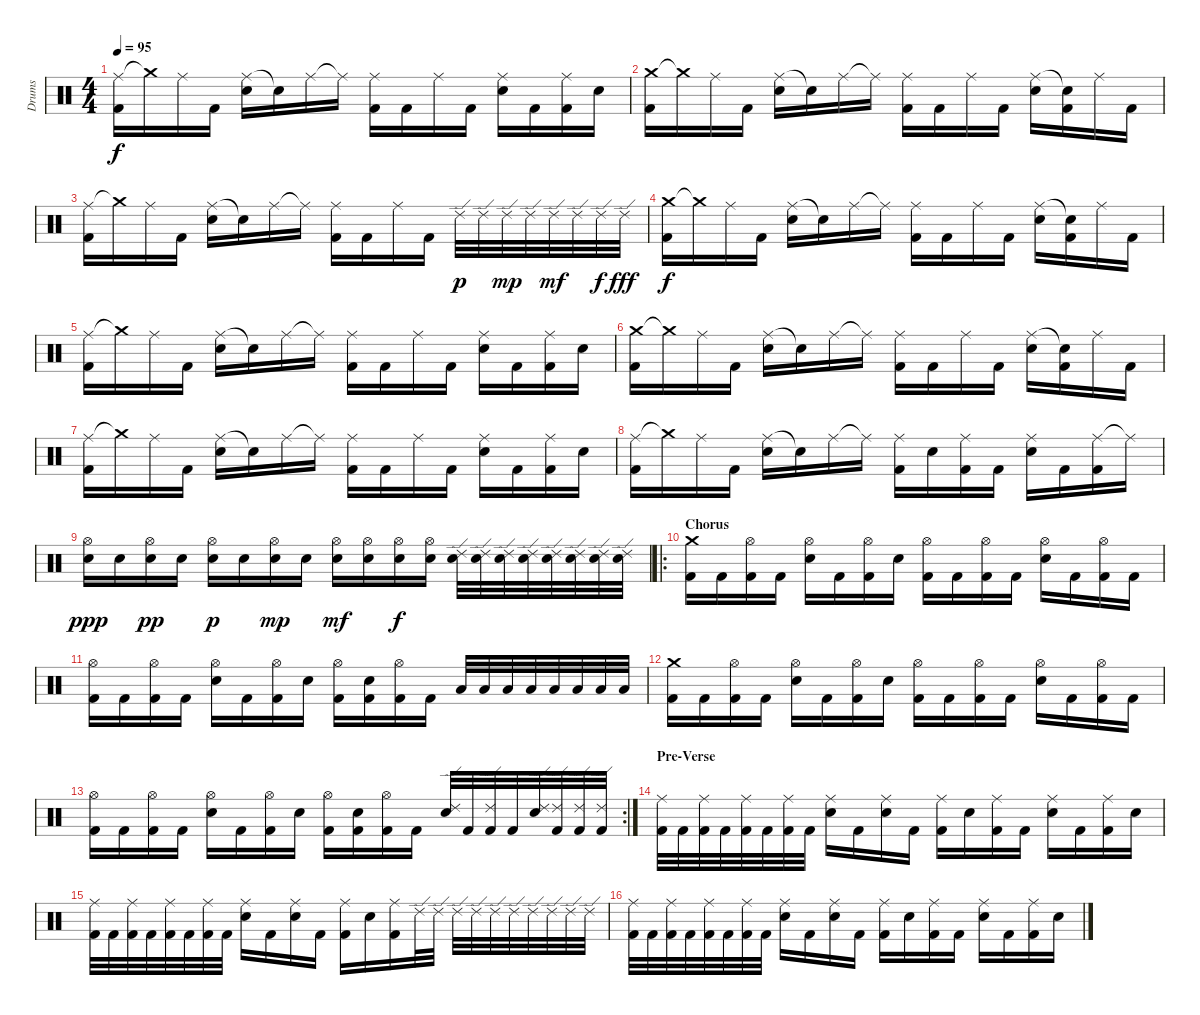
\track ("Drums" "Drums") {instrument percussion}
\staff {score}
\articulation defaults
\ts (4 4)
\tempo 95
\clef neutral
\ks c
("Ride (middle)" "Kick (hit) 2").16{dy f} "Crash medium (hit)"{t}.16 "Ride (middle)".16 "Kick (hit) 2".16 ("Ride (middle)" "Electric Snare (hit)").16 "Electric Snare (hit)"{t}.16 "Ride (middle)".16 "Ride (middle)"{t}.16 ("Ride (middle)" "Kick (hit) 2").16 "Kick (hit) 2".16 "Ride (middle)".16 "Kick (hit) 2".16 ("Ride (middle)" "Electric Snare (hit)").16 "Kick (hit) 2".16 ("Ride (middle)" "Kick (hit) 2").16 "Electric Snare (hit)".16 |
("Crash medium (hit)" "Kick (hit) 2").16 "Crash medium (hit)"{t}.16 "Ride (middle)".16 "Kick (hit) 2".16 ("Ride (middle)" "Electric Snare (hit)").16 "Electric Snare (hit)"{t}.16 "Ride (middle)".16 "Ride (middle)"{t}.16 ("Ride (middle)" "Kick (hit) 2").16 "Kick (hit) 2".16 "Ride (middle)".16 "Kick (hit) 2".16 ("Ride (middle)" "Electric Snare (hit)").16 ("Electric Snare (hit)"{t} "Kick (hit) 2").16 "Ride (middle)".16 "Kick (hit) 2".16 |
("Ride (middle)" "Kick (hit) 2").16 "Crash medium (hit)"{t}.16 "Ride (middle)".16 "Kick (hit) 2".16 ("Ride (middle)" "Electric Snare (hit)").16 "Electric Snare (hit)"{t}.16 "Ride (middle)".16 "Ride (middle)"{t}.16 ("Ride (middle)" "Kick (hit) 2").16 "Kick (hit) 2".16 "Ride (middle)".16 "Kick (hit) 2".16 "Ride (edge) 2".32{dy p} "Ride (edge) 2".32 "Ride (edge) 2".32{dy mp} "Ride (edge) 2".32 "Ride (edge) 2".32{dy mf} "Ride (edge) 2".32 "Ride (edge) 2".32{dy f} "Ride (edge) 2".32{dy fff} |
("Crash medium (hit)" "Kick (hit) 2").16{dy f} "Crash medium (hit)"{t}.16 "Ride (middle)".16 "Kick (hit) 2".16 ("Ride (middle)" "Electric Snare (hit)").16 "Electric Snare (hit)"{t}.16 "Ride (middle)".16 "Ride (middle)"{t}.16 ("Ride (middle)" "Kick (hit) 2").16 "Kick (hit) 2".16 "Ride (middle)".16 "Kick (hit) 2".16 ("Ride (middle)" "Electric Snare (hit)").16 ("Electric Snare (hit)"{t} "Kick (hit) 2").16 "Ride (middle)".16 "Kick (hit) 2".16 |
("Ride (middle)" "Kick (hit) 2").16 "Crash medium (hit)"{t}.16 "Ride (middle)".16 "Kick (hit) 2".16 ("Ride (middle)" "Electric Snare (hit)").16 "Electric Snare (hit)"{t}.16 "Ride (middle)".16 "Ride (middle)"{t}.16 ("Ride (middle)" "Kick (hit) 2").16 "Kick (hit) 2".16 "Ride (middle)".16 "Kick (hit) 2".16 ("Ride (middle)" "Electric Snare (hit)").16 "Kick (hit) 2".16 ("Ride (middle)" "Kick (hit) 2").16 "Electric Snare (hit)".16 |
("Crash medium (hit)" "Kick (hit) 2").16 "Crash medium (hit)"{t}.16 "Ride (middle)".16 "Kick (hit) 2".16 ("Ride (middle)" "Electric Snare (hit)").16 "Electric Snare (hit)"{t}.16 "Ride (middle)".16 "Ride (middle)"{t}.16 ("Ride (middle)" "Kick (hit) 2").16 "Kick (hit) 2".16 "Ride (middle)".16 "Kick (hit) 2".16 ("Ride (middle)" "Electric Snare (hit)").16 ("Electric Snare (hit)"{t} "Kick (hit) 2").16 "Ride (middle)".16 "Kick (hit) 2".16 |
("Ride (middle)" "Kick (hit) 2").16 "Crash medium (hit)"{t}.16 "Ride (middle)".16 "Kick (hit) 2".16 ("Ride (middle)" "Electric Snare (hit)").16 "Electric Snare (hit)"{t}.16 "Ride (middle)".16 "Ride (middle)"{t}.16 ("Ride (middle)" "Kick (hit) 2").16 "Kick (hit) 2".16 "Ride (middle)".16 "Kick (hit) 2".16 ("Ride (middle)" "Electric Snare (hit)").16 "Kick (hit) 2".16 ("Ride (middle)" "Kick (hit) 2").16 "Electric Snare (hit)".16 |
("Ride (middle)" "Kick (hit) 2").16 "Crash medium (hit)"{t}.16 "Ride (middle)".16 "Kick (hit) 2".16 ("Ride (middle)" "Electric Snare (hit)").16 "Electric Snare (hit)"{t}.16 "Ride (middle)".16 "Ride (middle)"{t}.16 ("Ride (middle)" "Kick (hit) 2").16 "Electric Snare (hit)".16 ("Ride (middle)" "Kick (hit) 2").16 "Kick (hit) 2".16 ("Ride (middle)" "Electric Snare (hit)").16 "Kick (hit) 2".16 ("Ride (middle)" "Kick (hit) 2").16 "Ride (middle)"{t}.16 |
("Hi-Hat (open)" "Electric Snare (hit)").16{dy ppp} "Electric Snare (hit)".16 ("Hi-Hat (open)" "Electric Snare (hit)").16{dy pp} "Electric Snare (hit)".16 ("Hi-Hat (open)" "Electric Snare (hit)").16{dy p} "Electric Snare (hit)".16 ("Hi-Hat (open)" "Electric Snare (hit)").16{dy mp} "Electric Snare (hit)".16 ("Hi-Hat (open)" "Electric Snare (hit)").16{dy mf} ("Hi-Hat (open)" "Electric Snare (hit)").16 ("Hi-Hat (open)" "Electric Snare (hit)").16{dy f} ("Hi-Hat (open)" "Electric Snare (hit)").16 ("Ride (edge) 2" "Electric Snare (hit)").32{balance 16} ("Ride (edge) 2" "Electric Snare (hit)").32{balance 12} ("Ride (edge) 2" "Electric Snare (hit)").32{balance 10} ("Ride (edge) 2" "Electric Snare (hit)").32{balance 8} ("Ride (edge) 2" "Electric Snare (hit)").32{balance 6} ("Ride (edge) 2" "Electric Snare (hit)").32{balance 4} ("Ride (edge) 2" "Electric Snare (hit)").32{balance 2} ("Ride (edge) 2" "Electric Snare (hit)").32{balance 0} |
\ro
\section ("" "Chorus")
("Crash medium (hit)" "Kick (hit) 2").16{balance 8} "Kick (hit) 2".16 ("Hi-Hat (open)" "Kick (hit) 2").16 "Kick (hit) 2".16 ("Hi-Hat (open)" "Electric Snare (hit)").16 "Kick (hit) 2".16 ("Hi-Hat (open)" "Kick (hit) 2").16 "Electric Snare (hit)".16 ("Hi-Hat (open)" "Kick (hit) 2").16 "Kick (hit) 2".16 ("Hi-Hat (open)" "Kick (hit) 2").16 "Kick (hit) 2".16 ("Hi-Hat (open)" "Electric Snare (hit)").16 "Kick (hit) 2".16 ("Hi-Hat (open)" "Kick (hit) 2").16 "Kick (hit) 2".16 |
("Hi-Hat (open)" "Kick (hit) 2").16 "Kick (hit) 2".16 ("Hi-Hat (open)" "Kick (hit) 2").16 "Kick (hit) 2".16 ("Hi-Hat (open)" "Electric Snare (hit)").16 "Kick (hit) 2".16 ("Hi-Hat (open)" "Kick (hit) 2").16 "Electric Snare (hit)".16 ("Hi-Hat (open)" "Kick (hit) 2").16 ("Electric Snare (hit)" "Kick (hit) 2").16 ("Hi-Hat (open)" "Kick (hit) 2").16 "Kick (hit) 2".16 "Low Floor Tom (hit)".32{balance 16} "Low Floor Tom (hit)".32{balance 14} "Low Floor Tom (hit)".32{balance 12} "Low Floor Tom (hit)".32{balance 10} "Low Floor Tom (hit)".32{balance 6} "Low Floor Tom (hit)".32{balance 6} "Low Floor Tom (hit)".32{balance 2} "Low Floor Tom (hit)".32{balance 0} |
("Crash medium (hit)" "Kick (hit) 2").16{balance 8} "Kick (hit) 2".16 ("Hi-Hat (open)" "Kick (hit) 2").16 "Kick (hit) 2".16 ("Hi-Hat (open)" "Electric Snare (hit)").16 "Kick (hit) 2".16 ("Hi-Hat (open)" "Kick (hit) 2").16 "Electric Snare (hit)".16 ("Hi-Hat (open)" "Kick (hit) 2").16 "Kick (hit) 2".16 ("Hi-Hat (open)" "Kick (hit) 2").16 "Kick (hit) 2".16 ("Hi-Hat (open)" "Electric Snare (hit)").16 "Kick (hit) 2".16 ("Hi-Hat (open)" "Kick (hit) 2").16 "Kick (hit) 2".16 |
\rc 2
("Hi-Hat (open)" "Kick (hit) 2").16 "Kick (hit) 2".16 ("Hi-Hat (open)" "Kick (hit) 2").16 "Kick (hit) 2".16 ("Hi-Hat (open)" "Electric Snare (hit)").16 "Kick (hit) 2".16 ("Hi-Hat (open)" "Kick (hit) 2").16 "Electric Snare (hit)".16 ("Hi-Hat (open)" "Kick (hit) 2").16 ("Electric Snare (hit)" "Kick (hit) 2").16 ("Hi-Hat (open)" "Kick (hit) 2").16 "Kick (hit) 2".16 ("Ride (edge) 2" "Electric Snare (hit)").32{balance 16} "Kick (hit) 2".32 ("Ride (edge) 2" "Kick (hit) 2").32 "Kick (hit) 2".32 ("Ride (edge) 2" "Electric Snare (hit)").32{balance 0} ("Ride (edge) 2" "Kick (hit) 2").32 ("Ride (edge) 2" "Kick (hit) 2").32 ("Ride (edge) 2" "Kick (hit) 2").32 |
\section ("" "Pre-Verse")
("Ride (middle)" "Kick (hit) 2").32{balance 8} "Kick (hit) 2".32 ("Ride (middle)" "Kick (hit) 2").32 "Kick (hit) 2".32 ("Ride (middle)" "Kick (hit) 2").32 "Kick (hit) 2".32 ("Ride (middle)" "Kick (hit) 2").32 "Kick (hit) 2".32 ("Ride (middle)" "Electric Snare (hit)").16 "Kick (hit) 2".16 ("Ride (middle)" "Electric Snare (hit)").16 "Kick (hit) 2".16 ("Ride (middle)" "Kick (hit) 2").16 "Electric Snare (hit)".16 ("Ride (middle)" "Kick (hit) 2").16 "Kick (hit) 2".16 ("Ride (middle)" "Electric Snare (hit)").16 "Kick (hit) 2".16 ("Ride (middle)" "Kick (hit) 2").16 "Electric Snare (hit)".16 |
("Ride (middle)" "Kick (hit) 2").32{balance 8} "Kick (hit) 2".32 ("Ride (middle)" "Kick (hit) 2").32 "Kick (hit) 2".32 ("Ride (middle)" "Kick (hit) 2").32 "Kick (hit) 2".32 ("Ride (middle)" "Kick (hit) 2").32 "Kick (hit) 2".32 ("Ride (middle)" "Electric Snare (hit)").16 "Kick (hit) 2".16 ("Ride (middle)" "Electric Snare (hit)").16 "Kick (hit) 2".16 ("Ride (middle)" "Kick (hit) 2").16 "Electric Snare (hit)".16 ("Ride (middle)" "Kick (hit) 2").16 "Ride (edge) 2".32{volume 4 balance 0} "Ride (edge) 2".32{volume 4 balance 16} "Ride (edge) 2".32{volume 16 balance 0} "Ride (edge) 2".32{balance 16} "Ride (edge) 2".32{balance 0} "Ride (edge) 2".32{balance 16} "Ride (edge) 2".32{balance 0} "Ride (edge) 2".32{balance 16} "Ride (edge) 2".32{balance 0} "Ride (edge) 2".32{balance 16} |
("Ride (middle)" "Kick (hit) 2").32{balance 8} "Kick (hit) 2".32 ("Ride (middle)" "Kick (hit) 2").32 "Kick (hit) 2".32 ("Ride (middle)" "Kick (hit) 2").32 "Kick (hit) 2".32 ("Ride (middle)" "Kick (hit) 2").32 "Kick (hit) 2".32 ("Ride (middle)" "Electric Snare (hit)").16 "Kick (hit) 2".16 ("Ride (middle)" "Electric Snare (hit)").16 "Kick (hit) 2".16 ("Ride (middle)" "Kick (hit) 2").16 "Electric Snare (hit)".16 ("Ride (middle)" "Kick (hit) 2").16 "Kick (hit) 2".16 ("Ride (middle)" "Electric Snare (hit)").16 "Kick (hit) 2".16 ("Ride (middle)" "Kick (hit) 2").16 "Electric Snare (hit)".16
